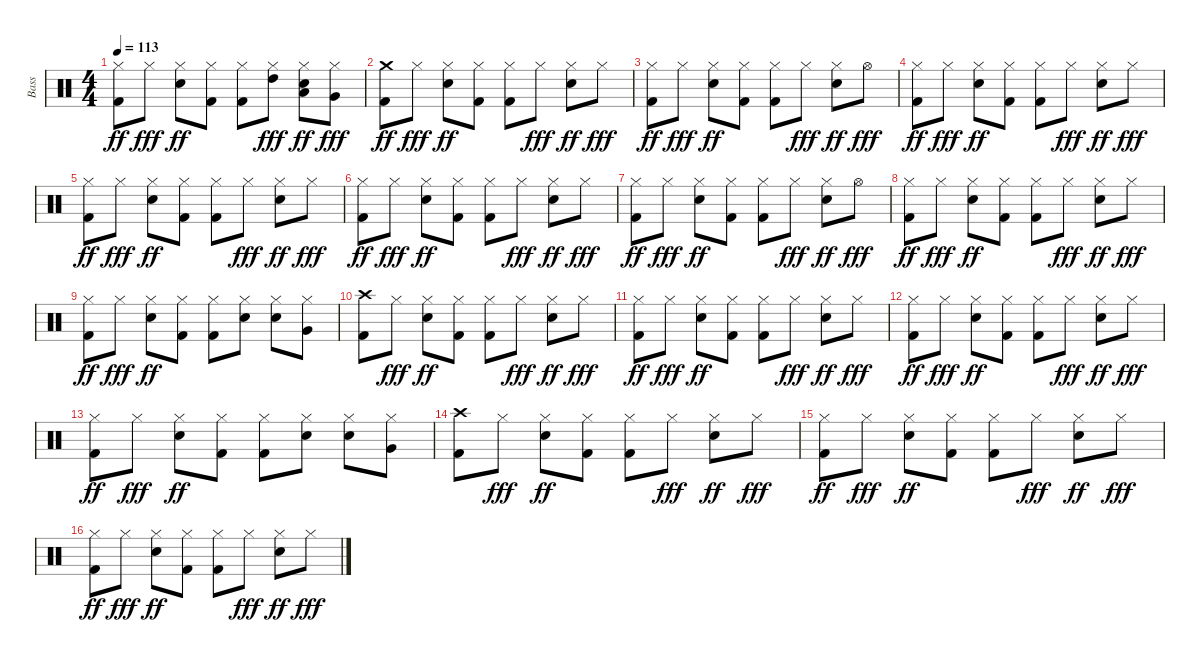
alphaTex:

\track (" Bass" " Bass") {instrument percussion}
\staff {score}
\articulation defaults
\ts (4 4)
\tempo 113
\clef neutral
\ks c
("Hi-Hat (closed)" "Kick (hit) 2").8{dy ff} "Hi-Hat (closed)".8{dy fff} ("Hi-Hat (closed)" "Snare (hit) 2").8{dy ff} ("Hi-Hat (closed)" "Kick (hit) 2").8 ("Hi-Hat (closed)" "Kick (hit) 2").8 ("Hi-Hat (closed)" "High Tom (hit)").8{dy fff} ("Hi-Hat (closed)" "Low Tom (hit)" "Snare (hit) 2").8{dy ff} ("Hi-Hat (closed)" "Very Low Tom (hit)").8{dy fff} |
("Crash medium (hit)" "Kick (hit) 2").8{dy ff} "Hi-Hat (closed)".8{dy fff} ("Hi-Hat (closed)" "Snare (hit) 2").8{dy ff} ("Hi-Hat (closed)" "Kick (hit) 2").8 ("Hi-Hat (closed)" "Kick (hit) 2").8 "Hi-Hat (closed)".8{dy fff} ("Hi-Hat (closed)" "Snare (hit) 2").8{dy ff} "Hi-Hat (closed)".8{dy fff} |
("Hi-Hat (closed)" "Kick (hit) 2").8{dy ff} "Hi-Hat (closed)".8{dy fff} ("Hi-Hat (closed)" "Snare (hit) 2").8{dy ff} ("Hi-Hat (closed)" "Kick (hit) 2").8 ("Hi-Hat (closed)" "Kick (hit) 2").8 "Hi-Hat (closed)".8{dy fff} ("Hi-Hat (closed)" "Snare (hit) 2").8{dy ff} "Hi-Hat (open)".8{dy fff} |
("Hi-Hat (closed)" "Kick (hit) 2").8{dy ff} "Hi-Hat (closed)".8{dy fff} ("Hi-Hat (closed)" "Snare (hit) 2").8{dy ff} ("Hi-Hat (closed)" "Kick (hit) 2").8 ("Hi-Hat (closed)" "Kick (hit) 2").8 "Hi-Hat (closed)".8{dy fff} ("Hi-Hat (closed)" "Snare (hit) 2").8{dy ff} "Hi-Hat (closed)".8{dy fff} |
("Hi-Hat (closed)" "Kick (hit) 2").8{dy ff} "Hi-Hat (closed)".8{dy fff} ("Hi-Hat (closed)" "Snare (hit) 2").8{dy ff} ("Hi-Hat (closed)" "Kick (hit) 2").8 ("Hi-Hat (closed)" "Kick (hit) 2").8 "Hi-Hat (closed)".8{dy fff} ("Hi-Hat (closed)" "Snare (hit) 2").8{dy ff} "Hi-Hat (closed)".8{dy fff} |
("Hi-Hat (closed)" "Kick (hit) 2").8{dy ff} "Hi-Hat (closed)".8{dy fff} ("Hi-Hat (closed)" "Snare (hit) 2").8{dy ff} ("Hi-Hat (closed)" "Kick (hit) 2").8 ("Hi-Hat (closed)" "Kick (hit) 2").8 "Hi-Hat (closed)".8{dy fff} ("Hi-Hat (closed)" "Snare (hit) 2").8{dy ff} "Hi-Hat (closed)".8{dy fff} |
("Hi-Hat (closed)" "Kick (hit) 2").8{dy ff} "Hi-Hat (closed)".8{dy fff} ("Hi-Hat (closed)" "Snare (hit) 2").8{dy ff} ("Hi-Hat (closed)" "Kick (hit) 2").8 ("Hi-Hat (closed)" "Kick (hit) 2").8 "Hi-Hat (closed)".8{dy fff} ("Hi-Hat (closed)" "Snare (hit) 2").8{dy ff} "Hi-Hat (open)".8{dy fff} |
("Hi-Hat (closed)" "Kick (hit) 2").8{dy ff} "Hi-Hat (closed)".8{dy fff} ("Hi-Hat (closed)" "Snare (hit) 2").8{dy ff} ("Hi-Hat (closed)" "Kick (hit) 2").8 ("Hi-Hat (closed)" "Kick (hit) 2").8 "Hi-Hat (closed)".8{dy fff} ("Hi-Hat (closed)" "Snare (hit) 2").8{dy ff} "Hi-Hat (closed)".8{dy fff} |
("Hi-Hat (closed)" "Kick (hit) 2").8{dy ff} "Hi-Hat (closed)".8{dy fff} ("Hi-Hat (closed)" "Snare (hit) 2").8{dy ff} ("Hi-Hat (closed)" "Kick (hit) 2").8 ("Hi-Hat (closed)" "Kick (hit) 2").8 ("Hi-Hat (closed)" "Snare (hit) 2").8 ("Hi-Hat (closed)" "Snare (hit) 2").8 ("Hi-Hat (closed)" "Very Low Tom (hit)").8 |
("Crash high (hit)" "Kick (hit) 2").8 "Hi-Hat (closed)".8{dy fff} ("Hi-Hat (closed)" "Snare (hit) 2").8{dy ff} ("Hi-Hat (closed)" "Kick (hit) 2").8 ("Hi-Hat (closed)" "Kick (hit) 2").8 "Hi-Hat (closed)".8{dy fff} ("Hi-Hat (closed)" "Snare (hit) 2").8{dy ff} "Hi-Hat (closed)".8{dy fff} |
("Hi-Hat (closed)" "Kick (hit) 2").8{dy ff} "Hi-Hat (closed)".8{dy fff} ("Hi-Hat (closed)" "Snare (hit) 2").8{dy ff} ("Hi-Hat (closed)" "Kick (hit) 2").8 ("Hi-Hat (closed)" "Kick (hit) 2").8 "Hi-Hat (closed)".8{dy fff} ("Hi-Hat (closed)" "Snare (hit) 2").8{dy ff} "Hi-Hat (closed)".8{dy fff} |
("Hi-Hat (closed)" "Kick (hit) 2").8{dy ff} "Hi-Hat (closed)".8{dy fff} ("Hi-Hat (closed)" "Snare (hit) 2").8{dy ff} ("Hi-Hat (closed)" "Kick (hit) 2").8 ("Hi-Hat (closed)" "Kick (hit) 2").8 "Hi-Hat (closed)".8{dy fff} ("Hi-Hat (closed)" "Snare (hit) 2").8{dy ff} "Hi-Hat (closed)".8{dy fff} |
("Hi-Hat (closed)" "Kick (hit) 2").8{dy ff} "Hi-Hat (closed)".8{dy fff} ("Hi-Hat (closed)" "Snare (hit) 2").8{dy ff} ("Hi-Hat (closed)" "Kick (hit) 2").8 ("Hi-Hat (closed)" "Kick (hit) 2").8 ("Hi-Hat (closed)" "Snare (hit) 2").8 ("Hi-Hat (closed)" "Snare (hit) 2").8 ("Hi-Hat (closed)" "Very Low Tom (hit)").8 |
("Crash high (hit)" "Kick (hit) 2").8 "Hi-Hat (closed)".8{dy fff} ("Hi-Hat (closed)" "Snare (hit) 2").8{dy ff} ("Hi-Hat (closed)" "Kick (hit) 2").8 ("Hi-Hat (closed)" "Kick (hit) 2").8 "Hi-Hat (closed)".8{dy fff} ("Hi-Hat (closed)" "Snare (hit) 2").8{dy ff} "Hi-Hat (closed)".8{dy fff} |
("Hi-Hat (closed)" "Kick (hit) 2").8{dy ff} "Hi-Hat (closed)".8{dy fff} ("Hi-Hat (closed)" "Snare (hit) 2").8{dy ff} ("Hi-Hat (closed)" "Kick (hit) 2").8 ("Hi-Hat (closed)" "Kick (hit) 2").8 "Hi-Hat (closed)".8{dy fff} ("Hi-Hat (closed)" "Snare (hit) 2").8{dy ff} "Hi-Hat (closed)".8{dy fff} |
("Hi-Hat (closed)" "Kick (hit) 2").8{dy ff} "Hi-Hat (closed)".8{dy fff} ("Hi-Hat (closed)" "Snare (hit) 2").8{dy ff} ("Hi-Hat (closed)" "Kick (hit) 2").8 ("Hi-Hat (closed)" "Kick (hit) 2").8 "Hi-Hat (closed)".8{dy fff} ("Hi-Hat (closed)" "Snare (hit) 2").8{dy ff} "Hi-Hat (closed)".8{dy fff}
